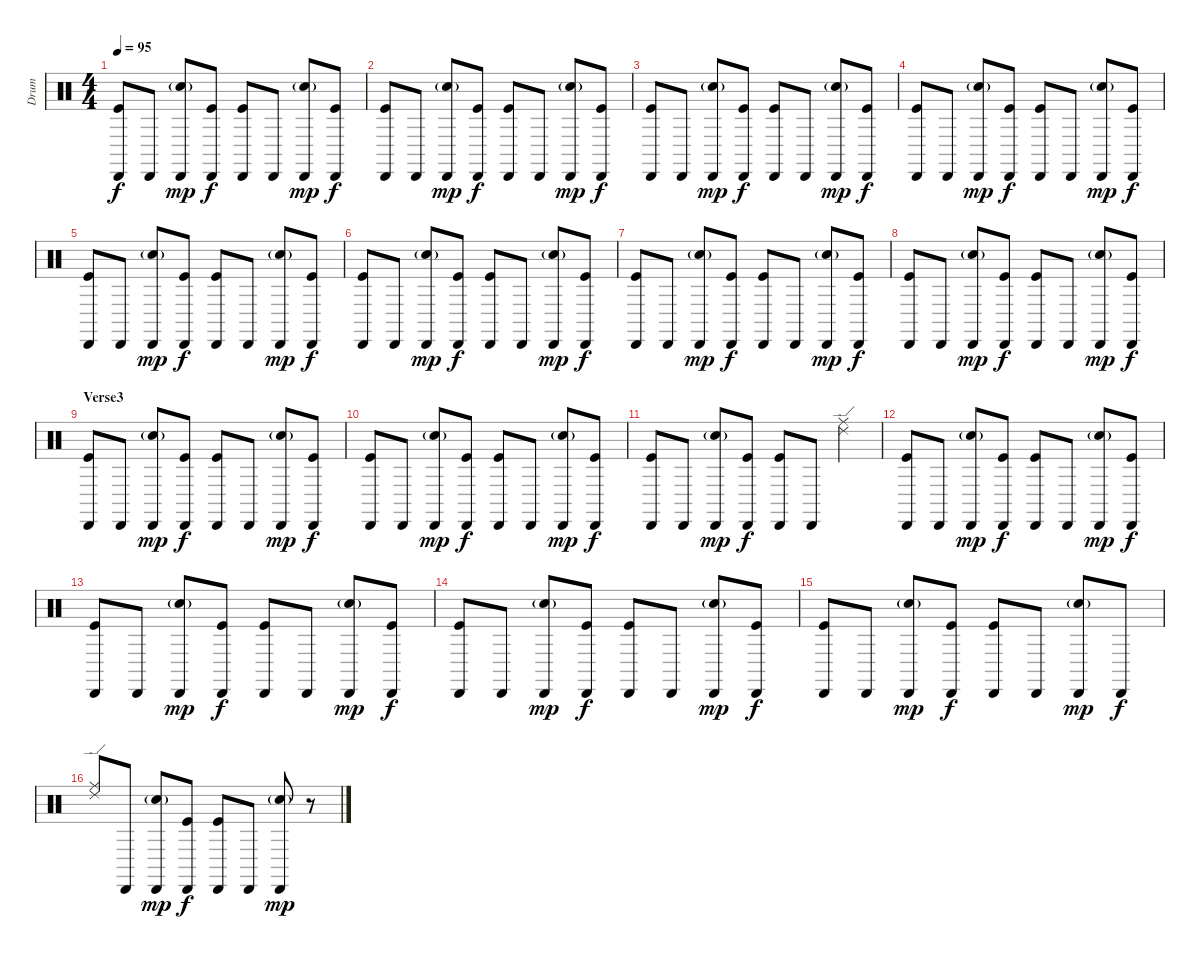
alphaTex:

\track ("Drum" "Drum") {instrument percussion}
\staff {score}
\articulation defaults
\ts (4 4)
\tempo 95
\clef neutral
\ks c
("Cabasa (hit)" "Kick (hit)").8{dy f} "Cabasa (hit)".8 ("Cabasa (hit)" "Electric Snare (hit)"{g}).8{dy mp} ("Cabasa (hit)" "Kick (hit)").8{dy f} ("Cabasa (hit)" "Kick (hit)").8 "Cabasa (hit)".8 ("Cabasa (hit)" "Electric Snare (hit)"{g}).8{dy mp} ("Cabasa (hit)" "Kick (hit)").8{dy f} |
("Cabasa (hit)" "Kick (hit)").8 "Cabasa (hit)".8 ("Cabasa (hit)" "Electric Snare (hit)"{g}).8{dy mp} ("Cabasa (hit)" "Kick (hit)").8{dy f} ("Cabasa (hit)" "Kick (hit)").8 "Cabasa (hit)".8 ("Cabasa (hit)" "Electric Snare (hit)"{g}).8{dy mp} ("Cabasa (hit)" "Kick (hit)").8{dy f} |
("Cabasa (hit)" "Kick (hit)").8 "Cabasa (hit)".8 ("Cabasa (hit)" "Electric Snare (hit)"{g}).8{dy mp} ("Cabasa (hit)" "Kick (hit)").8{dy f} ("Cabasa (hit)" "Kick (hit)").8 "Cabasa (hit)".8 ("Cabasa (hit)" "Electric Snare (hit)"{g}).8{dy mp} ("Cabasa (hit)" "Kick (hit)").8{dy f} |
("Cabasa (hit)" "Kick (hit)").8 "Cabasa (hit)".8 ("Cabasa (hit)" "Electric Snare (hit)"{g}).8{dy mp} ("Cabasa (hit)" "Kick (hit)").8{dy f} ("Cabasa (hit)" "Kick (hit)").8 "Cabasa (hit)".8 ("Cabasa (hit)" "Electric Snare (hit)"{g}).8{dy mp} ("Cabasa (hit)" "Kick (hit)").8{dy f} |
("Cabasa (hit)" "Kick (hit)").8 "Cabasa (hit)".8 ("Cabasa (hit)" "Electric Snare (hit)"{g}).8{dy mp} ("Cabasa (hit)" "Kick (hit)").8{dy f} ("Cabasa (hit)" "Kick (hit)").8 "Cabasa (hit)".8 ("Cabasa (hit)" "Electric Snare (hit)"{g}).8{dy mp} ("Cabasa (hit)" "Kick (hit)").8{dy f} |
("Cabasa (hit)" "Kick (hit)").8 "Cabasa (hit)".8 ("Cabasa (hit)" "Electric Snare (hit)"{g}).8{dy mp} ("Cabasa (hit)" "Kick (hit)").8{dy f} ("Cabasa (hit)" "Kick (hit)").8 "Cabasa (hit)".8 ("Cabasa (hit)" "Electric Snare (hit)"{g}).8{dy mp} ("Cabasa (hit)" "Kick (hit)").8{dy f} |
("Cabasa (hit)" "Kick (hit)").8 "Cabasa (hit)".8 ("Cabasa (hit)" "Electric Snare (hit)"{g}).8{dy mp} ("Cabasa (hit)" "Kick (hit)").8{dy f} ("Cabasa (hit)" "Kick (hit)").8 "Cabasa (hit)".8 ("Cabasa (hit)" "Electric Snare (hit)"{g}).8{dy mp} ("Cabasa (hit)" "Kick (hit)").8{dy f} |
("Cabasa (hit)" "Kick (hit)").8 "Cabasa (hit)".8 ("Cabasa (hit)" "Electric Snare (hit)"{g}).8{dy mp} ("Cabasa (hit)" "Kick (hit)").8{dy f} ("Cabasa (hit)" "Kick (hit)").8 "Cabasa (hit)".8 ("Cabasa (hit)" "Electric Snare (hit)"{g}).8{dy mp} ("Cabasa (hit)" "Kick (hit)").8{dy f} |
\section ("" "Verse3")
("Cabasa (hit)" "Kick (hit)").8 "Cabasa (hit)".8 ("Cabasa (hit)" "Electric Snare (hit)"{g}).8{dy mp} ("Cabasa (hit)" "Kick (hit)").8{dy f} ("Cabasa (hit)" "Kick (hit)").8 "Cabasa (hit)".8 ("Cabasa (hit)" "Electric Snare (hit)"{g}).8{dy mp} ("Cabasa (hit)" "Kick (hit)").8{dy f} |
("Cabasa (hit)" "Kick (hit)").8 "Cabasa (hit)".8 ("Cabasa (hit)" "Electric Snare (hit)"{g}).8{dy mp} ("Cabasa (hit)" "Kick (hit)").8{dy f} ("Cabasa (hit)" "Kick (hit)").8 "Cabasa (hit)".8 ("Cabasa (hit)" "Electric Snare (hit)"{g}).8{dy mp} ("Cabasa (hit)" "Kick (hit)").8{dy f} |
("Cabasa (hit)" "Kick (hit)").8 "Cabasa (hit)".8 ("Cabasa (hit)" "Electric Snare (hit)"{g}).8{dy mp} ("Cabasa (hit)" "Kick (hit)").8{dy f} ("Cabasa (hit)" "Kick (hit)").8 "Cabasa (hit)".8 ("Ride (edge) 2" "Ride (middle)").4 |
("Cabasa (hit)" "Kick (hit)").8 "Cabasa (hit)".8 ("Cabasa (hit)" "Electric Snare (hit)"{g}).8{dy mp} ("Cabasa (hit)" "Kick (hit)").8{dy f} ("Cabasa (hit)" "Kick (hit)").8 "Cabasa (hit)".8 ("Cabasa (hit)" "Electric Snare (hit)"{g}).8{dy mp} ("Cabasa (hit)" "Kick (hit)").8{dy f} |
("Cabasa (hit)" "Kick (hit)").8 "Cabasa (hit)".8 ("Cabasa (hit)" "Electric Snare (hit)"{g}).8{dy mp} ("Cabasa (hit)" "Kick (hit)").8{dy f} ("Cabasa (hit)" "Kick (hit)").8 "Cabasa (hit)".8 ("Cabasa (hit)" "Electric Snare (hit)"{g}).8{dy mp} ("Cabasa (hit)" "Kick (hit)").8{dy f} |
("Cabasa (hit)" "Kick (hit)").8 "Cabasa (hit)".8 ("Cabasa (hit)" "Electric Snare (hit)"{g}).8{dy mp} ("Cabasa (hit)" "Kick (hit)").8{dy f} ("Cabasa (hit)" "Kick (hit)").8 "Cabasa (hit)".8 ("Cabasa (hit)" "Electric Snare (hit)"{g}).8{dy mp} ("Cabasa (hit)" "Kick (hit)").8{dy f} |
("Cabasa (hit)" "Kick (hit)").8 "Cabasa (hit)".8 ("Cabasa (hit)" "Electric Snare (hit)"{g}).8{dy mp} ("Cabasa (hit)" "Kick (hit)").8{dy f} ("Cabasa (hit)" "Kick (hit)").8 "Cabasa (hit)".8 ("Cabasa (hit)" "Electric Snare (hit)"{g}).8{dy mp} "Cabasa (hit)".8{dy f} |
("Ride (edge) 2" "Ride (middle)").8 "Cabasa (hit)".8 ("Cabasa (hit)" "Electric Snare (hit)"{g}).8{dy mp} ("Cabasa (hit)" "Kick (hit)").8{dy f} ("Cabasa (hit)" "Kick (hit)").8 "Cabasa (hit)".8 ("Cabasa (hit)" "Electric Snare (hit)"{g}).8{dy mp} r.8
